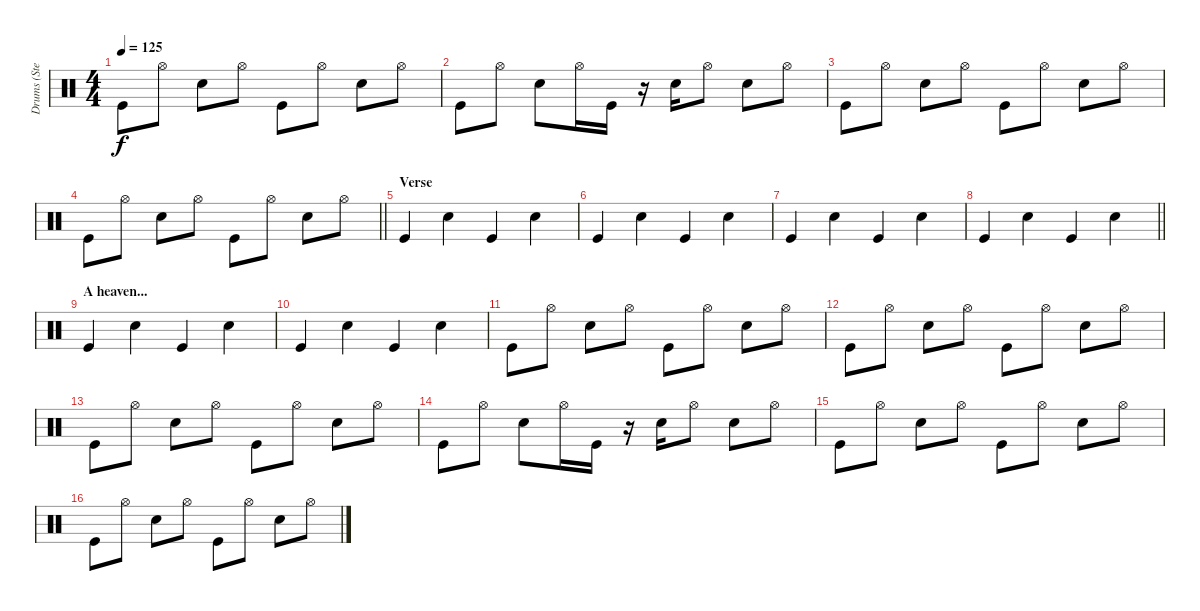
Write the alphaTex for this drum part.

\track ("Drums (Stephen Morris)" "Drums (Ste") {instrument percussion}
\staff {score}
\articulation defaults
\ts (4 4)
\tempo 125
\clef neutral
\ks c "Kick (hit)".8{dy f} "Hi-Hat (open)".8 "Electric Snare (hit)".8 "Hi-Hat (open)".8 "Kick (hit)".8 "Hi-Hat (open)".8 "Electric Snare (hit)".8 "Hi-Hat (open)".8
|
"Kick (hit)".8 "Hi-Hat (open)".8 "Electric Snare (hit)".8 "Hi-Hat (open)".16 "Kick (hit)".16 r.16 "Electric Snare (hit)".16 "Hi-Hat (open)".8 "Electric Snare (hit)".8 "Hi-Hat (open)".8 |
"Kick (hit)".8 "Hi-Hat (open)".8 "Electric Snare (hit)".8 "Hi-Hat (open)".8 "Kick (hit)".8 "Hi-Hat (open)".8 "Electric Snare (hit)".8 "Hi-Hat (open)".8 |
\barLineRight lightlight "Kick (hit)".8 "Hi-Hat (open)".8 "Electric Snare (hit)".8 "Hi-Hat (open)".8 "Kick (hit)".8 "Hi-Hat (open)".8 "Electric Snare (hit)".8 "Hi-Hat (open)".8
|
\section ("" "Verse")
"Kick (hit)".4 "Electric Snare (hit)".4 "Kick (hit)".4 "Electric Snare (hit)".4 |
"Kick (hit)".4 "Electric Snare (hit)".4 "Kick (hit)".4 "Electric Snare (hit)".4 |
"Kick (hit)".4 "Electric Snare (hit)".4 "Kick (hit)".4 "Electric Snare (hit)".4 |
\barLineRight lightlight "Kick (hit)".4 "Electric Snare (hit)".4 "Kick (hit)".4 "Electric Snare (hit)".4
|
\section ("" "A heaven...")
"Kick (hit)".4 "Electric Snare (hit)".4 "Kick (hit)".4 "Electric Snare (hit)".4 |
"Kick (hit)".4 "Electric Snare (hit)".4 "Kick (hit)".4 "Electric Snare (hit)".4 |
"Kick (hit)".8 "Hi-Hat (open)".8 "Electric Snare (hit)".8 "Hi-Hat (open)".8 "Kick (hit)".8 "Hi-Hat (open)".8 "Electric Snare (hit)".8 "Hi-Hat (open)".8 |
"Kick (hit)".8 "Hi-Hat (open)".8 "Electric Snare (hit)".8 "Hi-Hat (open)".8 "Kick (hit)".8 "Hi-Hat (open)".8 "Electric Snare (hit)".8 "Hi-Hat (open)".8 |
"Kick (hit)".8 "Hi-Hat (open)".8 "Electric Snare (hit)".8 "Hi-Hat (open)".8 "Kick (hit)".8 "Hi-Hat (open)".8 "Electric Snare (hit)".8 "Hi-Hat (open)".8 |
"Kick (hit)".8 "Hi-Hat (open)".8 "Electric Snare (hit)".8 "Hi-Hat (open)".16 "Kick (hit)".16 r.16 "Electric Snare (hit)".16 "Hi-Hat (open)".8 "Electric Snare (hit)".8 "Hi-Hat (open)".8 |
"Kick (hit)".8 "Hi-Hat (open)".8 "Electric Snare (hit)".8 "Hi-Hat (open)".8 "Kick (hit)".8 "Hi-Hat (open)".8 "Electric Snare (hit)".8 "Hi-Hat (open)".8 |
"Kick (hit)".8 "Hi-Hat (open)".8 "Electric Snare (hit)".8 "Hi-Hat (open)".8 "Kick (hit)".8 "Hi-Hat (open)".8 "Electric Snare (hit)".8 "Hi-Hat (open)".8
